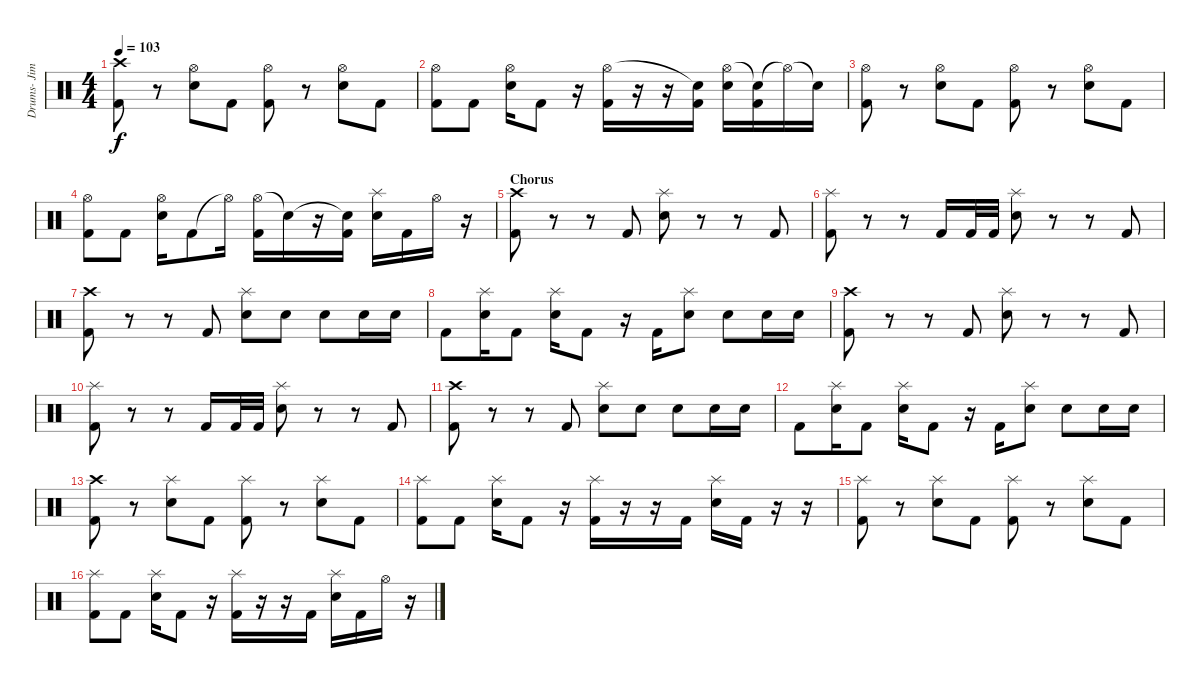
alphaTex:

\track ("Drums- Jimmy Bower" "Drums- Jim") {instrument percussion}
\staff {score}
\articulation defaults
\ts (4 4)
\tempo 103
\clef neutral
\ks c
("Crash high (hit)" "Kick (hit) 2").8{dy f} r.8 ("Hi-Hat (open)" "Electric Snare (hit)").8 "Kick (hit) 2".8 ("Hi-Hat (open)" "Kick (hit) 2").8 r.8 ("Hi-Hat (open)" "Electric Snare (hit)").8 "Kick (hit) 2".8 |
("Hi-Hat (open)" "Kick (hit) 2").8 "Kick (hit) 2".8 ("Hi-Hat (open)" "Electric Snare (hit)").16 "Kick (hit) 2".8 r.16 ("Hi-Hat (open)" "Kick (hit) 2").16 r.16 r.16 ("Snare (hit)"{t} "Kick (hit) 2").16 ("Hi-Hat (open)" "Electric Snare (hit)").16 ("Snare (hit)"{t} "Kick (hit) 2").16 "Hi-Hat (open)"{t}.16 "Snare (hit)"{t}.16 |
("Hi-Hat (open)" "Kick (hit) 2").8 r.8 ("Hi-Hat (open)" "Electric Snare (hit)").8 "Kick (hit) 2".8 ("Hi-Hat (open)" "Kick (hit) 2").8 r.8 ("Hi-Hat (open)" "Electric Snare (hit)").8 "Kick (hit) 2".8 |
("Hi-Hat (open)" "Kick (hit) 2").8 "Kick (hit) 2".8 ("Hi-Hat (open)" "Electric Snare (hit)").16 "Kick (hit) 2".8 "Hi-Hat (open)"{t}.16 ("Hi-Hat (open)" "Kick (hit) 2").16 "Snare (hit)"{t}.16 r.16 ("Snare (hit)"{t} "Kick (hit) 2").16 ("Splash (hit)" "Electric Snare (hit)").16 "Kick (hit) 2".16 "Hi-Hat (open)".16 r.16 |
\section ("" "Chorus")
("Crash high (hit)" "Kick (hit) 2").8 r.8 r.8 "Kick (hit) 2".8 ("Splash (hit)" "Electric Snare (hit)").8 r.8 r.8 "Kick (hit) 2".8 |
("Splash (hit)" "Kick (hit) 2").8 r.8 r.8 "Kick (hit) 2".16 "Kick (hit) 2".32 "Kick (hit) 2".32 ("Splash (hit)" "Electric Snare (hit)").8 r.8 r.8 "Kick (hit) 2".8 |
("Crash high (hit)" "Kick (hit) 2").8 r.8 r.8 "Kick (hit) 2".8 ("Splash (hit)" "Electric Snare (hit)").8 "Electric Snare (hit)".8 "Electric Snare (hit)".8 "Electric Snare (hit)".16 "Electric Snare (hit)".16 |
"Kick (hit) 2".8 ("Splash (hit)" "Electric Snare (hit)").16 "Kick (hit) 2".8 ("Splash (hit)" "Electric Snare (hit)").16 "Kick (hit) 2".8 r.16 "Kick (hit) 2".16 ("Splash (hit)" "Electric Snare (hit)").8 "Electric Snare (hit)".8 "Electric Snare (hit)".16 "Electric Snare (hit)".16 |
("Crash high (hit)" "Kick (hit) 2").8 r.8 r.8 "Kick (hit) 2".8 ("Splash (hit)" "Electric Snare (hit)").8 r.8 r.8 "Kick (hit) 2".8 |
("Splash (hit)" "Kick (hit) 2").8 r.8 r.8 "Kick (hit) 2".16 "Kick (hit) 2".32 "Kick (hit) 2".32 ("Splash (hit)" "Electric Snare (hit)").8 r.8 r.8 "Kick (hit) 2".8 |
("Crash high (hit)" "Kick (hit) 2").8 r.8 r.8 "Kick (hit) 2".8 ("Splash (hit)" "Electric Snare (hit)").8 "Electric Snare (hit)".8 "Electric Snare (hit)".8 "Electric Snare (hit)".16 "Electric Snare (hit)".16 |
"Kick (hit) 2".8 ("Splash (hit)" "Electric Snare (hit)").16 "Kick (hit) 2".8 ("Splash (hit)" "Electric Snare (hit)").16 "Kick (hit) 2".8 r.16 "Kick (hit) 2".16 ("Splash (hit)" "Electric Snare (hit)").8 "Electric Snare (hit)".8 "Electric Snare (hit)".16 "Electric Snare (hit)".16 |
("Crash high (hit)" "Kick (hit) 2").8 r.8 ("Splash (hit)" "Electric Snare (hit)").8 "Kick (hit) 2".8 ("Splash (hit)" "Kick (hit) 2").8 r.8 ("Splash (hit)" "Electric Snare (hit)").8 "Kick (hit) 2".8 |
("Splash (hit)" "Kick (hit) 2").8 "Kick (hit) 2".8 ("Splash (hit)" "Electric Snare (hit)").16 "Kick (hit) 2".8 r.16 ("Splash (hit)" "Kick (hit) 2").16 r.16 r.16 "Kick (hit) 2".16 ("Splash (hit)" "Electric Snare (hit)").16 "Kick (hit) 2".16 r.16 r.16 |
("Splash (hit)" "Kick (hit) 2").8 r.8 ("Splash (hit)" "Electric Snare (hit)").8 "Kick (hit) 2".8 ("Splash (hit)" "Kick (hit) 2").8 r.8 ("Splash (hit)" "Electric Snare (hit)").8 "Kick (hit) 2".8 |
("Splash (hit)" "Kick (hit) 2").8 "Kick (hit) 2".8 ("Splash (hit)" "Electric Snare (hit)").16 "Kick (hit) 2".8 r.16 ("Splash (hit)" "Kick (hit) 2").16 r.16 r.16 "Kick (hit) 2".16 ("Splash (hit)" "Electric Snare (hit)").16 "Kick (hit) 2".16 "Hi-Hat (open)".16 r.16
